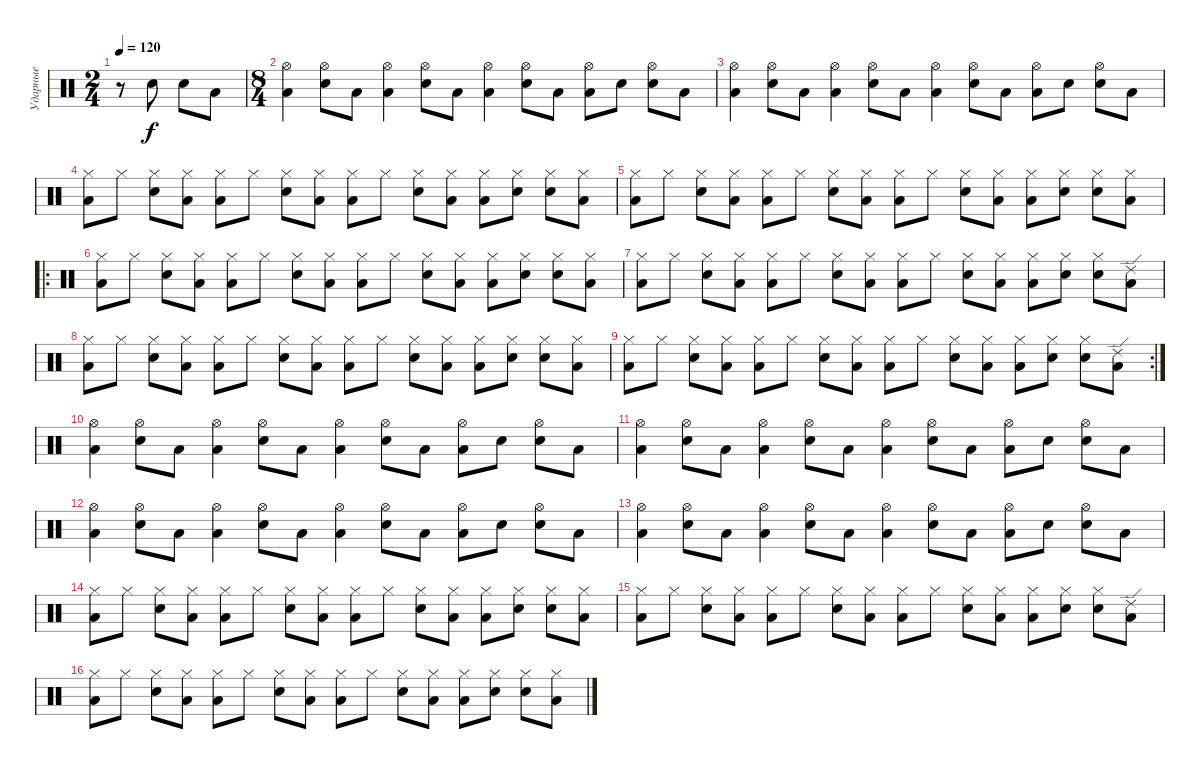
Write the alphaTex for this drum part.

\track ("Ударные" "Ударные") {instrument percussion}
\staff {score}
\articulation defaults
\ts (2 4)
\tempo 120
\clef neutral
\ks c
r.8{dy f} "Electric Snare (hit)".8 "Electric Snare (hit)".8 "Low Tom (hit)".8 |
\ts (8 4)
("Hi-Hat (open)" "Low Tom (hit)").4 ("Hi-Hat (open)" "Electric Snare (hit)").8 "Low Tom (hit)".8 ("Hi-Hat (open)" "Low Tom (hit)").4 ("Hi-Hat (open)" "Electric Snare (hit)").8 "Low Tom (hit)".8 ("Hi-Hat (open)" "Low Tom (hit)").4 ("Hi-Hat (open)" "Electric Snare (hit)").8 "Low Tom (hit)".8 ("Hi-Hat (open)" "Low Tom (hit)").8 "Electric Snare (hit)".8 ("Hi-Hat (open)" "Electric Snare (hit)").8 "Low Tom (hit)".8 |
("Hi-Hat (open)" "Low Tom (hit)").4 ("Hi-Hat (open)" "Electric Snare (hit)").8 "Low Tom (hit)".8 ("Hi-Hat (open)" "Low Tom (hit)").4 ("Hi-Hat (open)" "Electric Snare (hit)").8 "Low Tom (hit)".8 ("Hi-Hat (open)" "Low Tom (hit)").4 ("Hi-Hat (open)" "Electric Snare (hit)").8 "Low Tom (hit)".8 ("Hi-Hat (open)" "Low Tom (hit)").8 "Electric Snare (hit)".8 ("Hi-Hat (open)" "Electric Snare (hit)").8 "Low Tom (hit)".8 |
("Hi-Hat (closed)" "Low Tom (hit)").8 "Hi-Hat (closed)".8 ("Hi-Hat (closed)" "Electric Snare (hit)").8 ("Hi-Hat (closed)" "Low Tom (hit)").8 ("Hi-Hat (closed)" "Low Tom (hit)").8 "Hi-Hat (closed)".8 ("Hi-Hat (closed)" "Electric Snare (hit)").8 ("Hi-Hat (closed)" "Low Tom (hit)").8 ("Hi-Hat (closed)" "Low Tom (hit)").8 "Hi-Hat (closed)".8 ("Hi-Hat (closed)" "Electric Snare (hit)").8 ("Hi-Hat (closed)" "Low Tom (hit)").8 ("Hi-Hat (closed)" "Low Tom (hit)").8 ("Hi-Hat (closed)" "Electric Snare (hit)").8 ("Hi-Hat (closed)" "Electric Snare (hit)").8 ("Hi-Hat (closed)" "Low Tom (hit)").8 |
("Hi-Hat (closed)" "Low Tom (hit)").8 "Hi-Hat (closed)".8 ("Hi-Hat (closed)" "Electric Snare (hit)").8 ("Hi-Hat (closed)" "Low Tom (hit)").8 ("Hi-Hat (closed)" "Low Tom (hit)").8 "Hi-Hat (closed)".8 ("Hi-Hat (closed)" "Electric Snare (hit)").8 ("Hi-Hat (closed)" "Low Tom (hit)").8 ("Hi-Hat (closed)" "Low Tom (hit)").8 "Hi-Hat (closed)".8 ("Hi-Hat (closed)" "Electric Snare (hit)").8 ("Hi-Hat (closed)" "Low Tom (hit)").8 ("Hi-Hat (closed)" "Low Tom (hit)").8 ("Hi-Hat (closed)" "Electric Snare (hit)").8 ("Hi-Hat (closed)" "Electric Snare (hit)").8 ("Hi-Hat (closed)" "Low Tom (hit)").8 |
\ro
("Hi-Hat (closed)" "Low Tom (hit)").8 "Hi-Hat (closed)".8 ("Hi-Hat (closed)" "Electric Snare (hit)").8 ("Hi-Hat (closed)" "Low Tom (hit)").8 ("Hi-Hat (closed)" "Low Tom (hit)").8 "Hi-Hat (closed)".8 ("Hi-Hat (closed)" "Electric Snare (hit)").8 ("Hi-Hat (closed)" "Low Tom (hit)").8 ("Hi-Hat (closed)" "Low Tom (hit)").8 "Hi-Hat (closed)".8 ("Hi-Hat (closed)" "Electric Snare (hit)").8 ("Hi-Hat (closed)" "Low Tom (hit)").8 ("Hi-Hat (closed)" "Low Tom (hit)").8 ("Hi-Hat (closed)" "Electric Snare (hit)").8 ("Hi-Hat (closed)" "Electric Snare (hit)").8 ("Hi-Hat (closed)" "Low Tom (hit)").8 |
("Hi-Hat (closed)" "Low Tom (hit)").8 "Hi-Hat (closed)".8 ("Hi-Hat (closed)" "Electric Snare (hit)").8 ("Hi-Hat (closed)" "Low Tom (hit)").8 ("Hi-Hat (closed)" "Low Tom (hit)").8 "Hi-Hat (closed)".8 ("Hi-Hat (closed)" "Electric Snare (hit)").8 ("Hi-Hat (closed)" "Low Tom (hit)").8 ("Hi-Hat (closed)" "Low Tom (hit)").8 "Hi-Hat (closed)".8 ("Hi-Hat (closed)" "Electric Snare (hit)").8 ("Hi-Hat (closed)" "Low Tom (hit)").8 ("Hi-Hat (closed)" "Low Tom (hit)").8 ("Hi-Hat (closed)" "Electric Snare (hit)").8 ("Hi-Hat (closed)" "Electric Snare (hit)").8 ("Ride (edge) 2" "Low Tom (hit)").8 |
("Hi-Hat (closed)" "Low Tom (hit)").8 "Hi-Hat (closed)".8 ("Hi-Hat (closed)" "Electric Snare (hit)").8 ("Hi-Hat (closed)" "Low Tom (hit)").8 ("Hi-Hat (closed)" "Low Tom (hit)").8 "Hi-Hat (closed)".8 ("Hi-Hat (closed)" "Electric Snare (hit)").8 ("Hi-Hat (closed)" "Low Tom (hit)").8 ("Hi-Hat (closed)" "Low Tom (hit)").8 "Hi-Hat (closed)".8 ("Hi-Hat (closed)" "Electric Snare (hit)").8 ("Hi-Hat (closed)" "Low Tom (hit)").8 ("Hi-Hat (closed)" "Low Tom (hit)").8 ("Hi-Hat (closed)" "Electric Snare (hit)").8 ("Hi-Hat (closed)" "Electric Snare (hit)").8 ("Hi-Hat (closed)" "Low Tom (hit)").8 |
\rc 2
("Hi-Hat (closed)" "Low Tom (hit)").8 "Hi-Hat (closed)".8 ("Hi-Hat (closed)" "Electric Snare (hit)").8 ("Hi-Hat (closed)" "Low Tom (hit)").8 ("Hi-Hat (closed)" "Low Tom (hit)").8 "Hi-Hat (closed)".8 ("Hi-Hat (closed)" "Electric Snare (hit)").8 ("Hi-Hat (closed)" "Low Tom (hit)").8 ("Hi-Hat (closed)" "Low Tom (hit)").8 "Hi-Hat (closed)".8 ("Hi-Hat (closed)" "Electric Snare (hit)").8 ("Hi-Hat (closed)" "Low Tom (hit)").8 ("Hi-Hat (closed)" "Low Tom (hit)").8 ("Hi-Hat (closed)" "Electric Snare (hit)").8 ("Hi-Hat (closed)" "Electric Snare (hit)").8 ("Ride (edge) 2" "Low Tom (hit)").8 |
("Hi-Hat (open)" "Low Tom (hit)").4 ("Hi-Hat (open)" "Electric Snare (hit)").8 "Low Tom (hit)".8 ("Hi-Hat (open)" "Low Tom (hit)").4 ("Hi-Hat (open)" "Electric Snare (hit)").8 "Low Tom (hit)".8 ("Hi-Hat (open)" "Low Tom (hit)").4 ("Hi-Hat (open)" "Electric Snare (hit)").8 "Low Tom (hit)".8 ("Hi-Hat (open)" "Low Tom (hit)").8 "Electric Snare (hit)".8 ("Hi-Hat (open)" "Electric Snare (hit)").8 "Low Tom (hit)".8 |
("Hi-Hat (open)" "Low Tom (hit)").4 ("Hi-Hat (open)" "Electric Snare (hit)").8 "Low Tom (hit)".8 ("Hi-Hat (open)" "Low Tom (hit)").4 ("Hi-Hat (open)" "Electric Snare (hit)").8 "Low Tom (hit)".8 ("Hi-Hat (open)" "Low Tom (hit)").4 ("Hi-Hat (open)" "Electric Snare (hit)").8 "Low Tom (hit)".8 ("Hi-Hat (open)" "Low Tom (hit)").8 "Electric Snare (hit)".8 ("Hi-Hat (open)" "Electric Snare (hit)").8 "Low Tom (hit)".8 |
("Hi-Hat (open)" "Low Tom (hit)").4 ("Hi-Hat (open)" "Electric Snare (hit)").8 "Low Tom (hit)".8 ("Hi-Hat (open)" "Low Tom (hit)").4 ("Hi-Hat (open)" "Electric Snare (hit)").8 "Low Tom (hit)".8 ("Hi-Hat (open)" "Low Tom (hit)").4 ("Hi-Hat (open)" "Electric Snare (hit)").8 "Low Tom (hit)".8 ("Hi-Hat (open)" "Low Tom (hit)").8 "Electric Snare (hit)".8 ("Hi-Hat (open)" "Electric Snare (hit)").8 "Low Tom (hit)".8 |
("Hi-Hat (open)" "Low Tom (hit)").4 ("Hi-Hat (open)" "Electric Snare (hit)").8 "Low Tom (hit)".8 ("Hi-Hat (open)" "Low Tom (hit)").4 ("Hi-Hat (open)" "Electric Snare (hit)").8 "Low Tom (hit)".8 ("Hi-Hat (open)" "Low Tom (hit)").4 ("Hi-Hat (open)" "Electric Snare (hit)").8 "Low Tom (hit)".8 ("Hi-Hat (open)" "Low Tom (hit)").8 "Electric Snare (hit)".8 ("Hi-Hat (open)" "Electric Snare (hit)").8 "Low Tom (hit)".8 |
("Hi-Hat (closed)" "Low Tom (hit)").8 "Hi-Hat (closed)".8 ("Hi-Hat (closed)" "Electric Snare (hit)").8 ("Hi-Hat (closed)" "Low Tom (hit)").8 ("Hi-Hat (closed)" "Low Tom (hit)").8 "Hi-Hat (closed)".8 ("Hi-Hat (closed)" "Electric Snare (hit)").8 ("Hi-Hat (closed)" "Low Tom (hit)").8 ("Hi-Hat (closed)" "Low Tom (hit)").8 "Hi-Hat (closed)".8 ("Hi-Hat (closed)" "Electric Snare (hit)").8 ("Hi-Hat (closed)" "Low Tom (hit)").8 ("Hi-Hat (closed)" "Low Tom (hit)").8 ("Hi-Hat (closed)" "Electric Snare (hit)").8 ("Hi-Hat (closed)" "Electric Snare (hit)").8 ("Hi-Hat (closed)" "Low Tom (hit)").8 |
("Hi-Hat (closed)" "Low Tom (hit)").8 "Hi-Hat (closed)".8 ("Hi-Hat (closed)" "Electric Snare (hit)").8 ("Hi-Hat (closed)" "Low Tom (hit)").8 ("Hi-Hat (closed)" "Low Tom (hit)").8 "Hi-Hat (closed)".8 ("Hi-Hat (closed)" "Electric Snare (hit)").8 ("Hi-Hat (closed)" "Low Tom (hit)").8 ("Hi-Hat (closed)" "Low Tom (hit)").8 "Hi-Hat (closed)".8 ("Hi-Hat (closed)" "Electric Snare (hit)").8 ("Hi-Hat (closed)" "Low Tom (hit)").8 ("Hi-Hat (closed)" "Low Tom (hit)").8 ("Hi-Hat (closed)" "Electric Snare (hit)").8 ("Hi-Hat (closed)" "Electric Snare (hit)").8 ("Ride (edge) 2" "Low Tom (hit)").8 |
("Hi-Hat (closed)" "Low Tom (hit)").8 "Hi-Hat (closed)".8 ("Hi-Hat (closed)" "Electric Snare (hit)").8 ("Hi-Hat (closed)" "Low Tom (hit)").8 ("Hi-Hat (closed)" "Low Tom (hit)").8 "Hi-Hat (closed)".8 ("Hi-Hat (closed)" "Electric Snare (hit)").8 ("Hi-Hat (closed)" "Low Tom (hit)").8 ("Hi-Hat (closed)" "Low Tom (hit)").8 "Hi-Hat (closed)".8 ("Hi-Hat (closed)" "Electric Snare (hit)").8 ("Hi-Hat (closed)" "Low Tom (hit)").8 ("Hi-Hat (closed)" "Low Tom (hit)").8 ("Hi-Hat (closed)" "Electric Snare (hit)").8 ("Hi-Hat (closed)" "Electric Snare (hit)").8 ("Hi-Hat (closed)" "Low Tom (hit)").8
